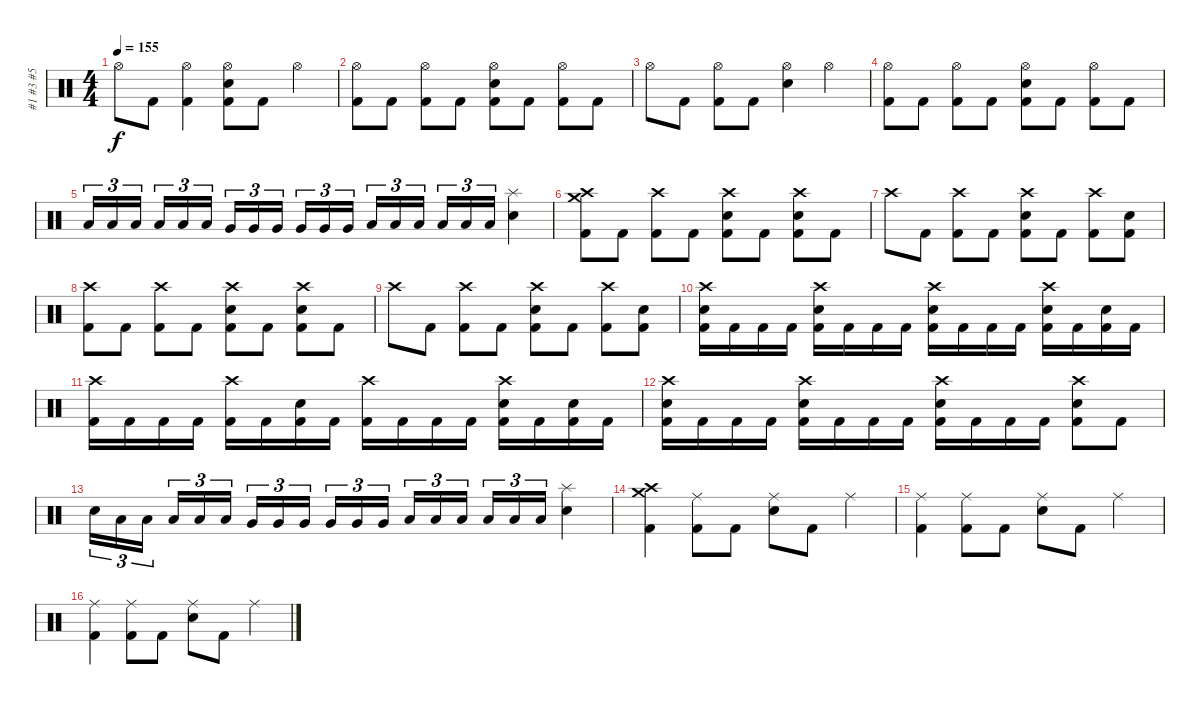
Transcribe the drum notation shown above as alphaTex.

\track ("#1 #3 #5" "#1 #3 #5") {instrument percussion}
\staff {score}
\articulation defaults
\ts (4 4)
\tempo 155
\clef neutral
\ks c "Hi-Hat (open)".8{dy f} "Kick (hit) 2".8
("Hi-Hat (open)" "Kick (hit) 2").4 ("Hi-Hat (open)" "Electric Snare (hit)" "Kick (hit) 2").8 "Kick (hit) 2".8 "Hi-Hat (open)".4 |
("Hi-Hat (open)" "Kick (hit) 2").8 "Kick (hit) 2".8 ("Hi-Hat (open)" "Kick (hit) 2").8 "Kick (hit) 2".8 ("Hi-Hat (open)" "Electric Snare (hit)" "Kick (hit) 2").8 "Kick (hit) 2".8 ("Hi-Hat (open)" "Kick (hit) 2").8 "Kick (hit) 2".8 |
"Hi-Hat (open)".8 "Kick (hit) 2".8 ("Hi-Hat (open)" "Kick (hit) 2").8 "Kick (hit) 2".8 ("Hi-Hat (open)" "Electric Snare (hit)").4 "Hi-Hat (open)".4 |
("Hi-Hat (open)" "Kick (hit) 2").8 "Kick (hit) 2".8 ("Hi-Hat (open)" "Kick (hit) 2").8 "Kick (hit) 2".8 ("Hi-Hat (open)" "Electric Snare (hit)" "Kick (hit) 2").8 "Kick (hit) 2".8 ("Hi-Hat (open)" "Kick (hit) 2").8 "Kick (hit) 2".8 |
"Low Tom (hit)".16{tu (3 2)} "Low Tom (hit)".16{tu (3 2)} "Low Tom (hit)".16{tu (3 2)} "Low Tom (hit)".16{tu (3 2)} "Low Tom (hit)".16{tu (3 2)} "Low Tom (hit)".16{tu (3 2)} "Very Low Tom (hit)".16{tu (3 2)} "Very Low Tom (hit)".16{tu (3 2)} "Very Low Tom (hit)".16{tu (3 2)} "Very Low Tom (hit)".16{tu (3 2)} "Very Low Tom (hit)".16{tu (3 2)} "Very Low Tom (hit)".16{tu (3 2)} "Low Floor Tom (hit)".16{tu (3 2)} "Low Floor Tom (hit)".16{tu (3 2)} "Low Floor Tom (hit)".16{tu (3 2)} "Low Floor Tom (hit)".16{tu (3 2)} "Low Floor Tom (hit)".16{tu (3 2)} "Low Floor Tom (hit)".16{tu (3 2)} ("Splash (hit)" "Electric Snare (hit)").4 |
\section ("" " ")
("Crash medium (hit)" "Crash high (hit)" "Kick (hit) 2").8 "Kick (hit) 2".8 ("Crash high (hit)" "Kick (hit) 2").8 "Kick (hit) 2".8 ("Crash high (hit)" "Electric Snare (hit)" "Kick (hit) 2").8 "Kick (hit) 2".8 ("Crash high (hit)" "Electric Snare (hit)" "Kick (hit) 2").8 "Kick (hit) 2".8 |
"Crash high (hit)".8 "Kick (hit) 2".8 ("Crash high (hit)" "Kick (hit) 2").8 "Kick (hit) 2".8 ("Crash high (hit)" "Electric Snare (hit)" "Kick (hit) 2").8 "Kick (hit) 2".8 ("Crash high (hit)" "Kick (hit) 2").8 ("Electric Snare (hit)" "Kick (hit) 2").8 |
("Crash high (hit)" "Kick (hit) 2").8 "Kick (hit) 2".8 ("Crash high (hit)" "Kick (hit) 2").8 "Kick (hit) 2".8 ("Crash high (hit)" "Electric Snare (hit)" "Kick (hit) 2").8 "Kick (hit) 2".8 ("Crash high (hit)" "Electric Snare (hit)" "Kick (hit) 2").8 "Kick (hit) 2".8 |
"Crash high (hit)".8 "Kick (hit) 2".8 ("Crash high (hit)" "Kick (hit) 2").8 "Kick (hit) 2".8 ("Crash high (hit)" "Electric Snare (hit)" "Kick (hit) 2").8 "Kick (hit) 2".8 ("Crash high (hit)" "Kick (hit) 2").8 ("Electric Snare (hit)" "Kick (hit) 2").8 |
("Crash high (hit)" "Electric Snare (hit)" "Kick (hit) 2").16 "Kick (hit) 2".16 "Kick (hit) 2".16 "Kick (hit) 2".16 ("Crash high (hit)" "Electric Snare (hit)" "Kick (hit) 2").16 "Kick (hit) 2".16 "Kick (hit) 2".16 "Kick (hit) 2".16 ("Crash high (hit)" "Electric Snare (hit)" "Kick (hit) 2").16 "Kick (hit) 2".16 "Kick (hit) 2".16 "Kick (hit) 2".16 ("Crash high (hit)" "Electric Snare (hit)" "Kick (hit) 2").16 "Kick (hit) 2".16 ("Electric Snare (hit)" "Kick (hit) 2").16 "Kick (hit) 2".16 |
("Crash high (hit)" "Kick (hit) 2").16 "Kick (hit) 2".16 "Kick (hit) 2".16 "Kick (hit) 2".16 ("Crash high (hit)" "Kick (hit) 2").16 "Kick (hit) 2".16 ("Electric Snare (hit)" "Kick (hit) 2").16 "Kick (hit) 2".16 ("Crash high (hit)" "Kick (hit) 2").16 "Kick (hit) 2".16 "Kick (hit) 2".16 "Kick (hit) 2".16 ("Crash high (hit)" "Electric Snare (hit)" "Kick (hit) 2").16 "Kick (hit) 2".16 ("Electric Snare (hit)" "Kick (hit) 2").16 "Kick (hit) 2".16 |
("Crash high (hit)" "Electric Snare (hit)" "Kick (hit) 2").16 "Kick (hit) 2".16 "Kick (hit) 2".16 "Kick (hit) 2".16 ("Crash high (hit)" "Electric Snare (hit)" "Kick (hit) 2").16 "Kick (hit) 2".16 "Kick (hit) 2".16 "Kick (hit) 2".16 ("Crash high (hit)" "Electric Snare (hit)" "Kick (hit) 2").16 "Kick (hit) 2".16 "Kick (hit) 2".16 "Kick (hit) 2".16 ("Crash high (hit)" "Electric Snare (hit)" "Kick (hit) 2").8 "Kick (hit) 2".8 |
"Electric Snare (hit)".16{tu (3 2)} "Low Tom (hit)".16{tu (3 2)} "Low Tom (hit)".16{tu (3 2)} "Low Tom (hit)".16{tu (3 2)} "Low Tom (hit)".16{tu (3 2)} "Low Tom (hit)".16{tu (3 2)} "Very Low Tom (hit)".16{tu (3 2)} "Very Low Tom (hit)".16{tu (3 2)} "Very Low Tom (hit)".16{tu (3 2)} "Very Low Tom (hit)".16{tu (3 2)} "Very Low Tom (hit)".16{tu (3 2)} "Very Low Tom (hit)".16{tu (3 2)} "Low Floor Tom (hit)".16{tu (3 2)} "Low Floor Tom (hit)".16{tu (3 2)} "Low Floor Tom (hit)".16{tu (3 2)} "Low Floor Tom (hit)".16{tu (3 2)} "Low Floor Tom (hit)".16{tu (3 2)} "Low Floor Tom (hit)".16{tu (3 2)} ("Splash (hit)" "Electric Snare (hit)").4 |
\section ("" " ")
("Crash medium (hit)" "Crash high (hit)" "Kick (hit) 2").4 ("Ride (middle)" "Kick (hit) 2").8 "Kick (hit) 2".8 ("Ride (middle)" "Electric Snare (hit)").8 "Kick (hit) 2".8 "Ride (middle)".4 |
("Ride (middle)" "Kick (hit) 2").4 ("Ride (middle)" "Kick (hit) 2").8 "Kick (hit) 2".8 ("Ride (middle)" "Electric Snare (hit)").8 "Kick (hit) 2".8 "Ride (middle)".4 |
("Ride (middle)" "Kick (hit) 2").4 ("Ride (middle)" "Kick (hit) 2").8 "Kick (hit) 2".8 ("Ride (middle)" "Electric Snare (hit)").8 "Kick (hit) 2".8 "Ride (middle)".4
